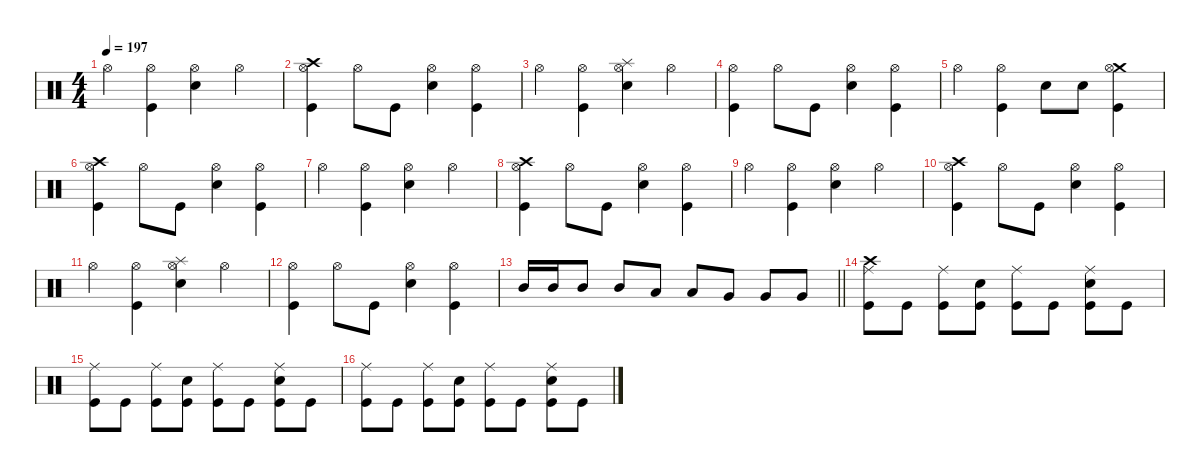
\defaultSystemsLayout 4
\hideDynamics
\bracketExtendMode nobrackets
\singleTrackTrackNamePolicy hidden
\multiTrackTrackNamePolicy hidden
\firstSystemTrackNameMode fullname
\firstSystemTrackNameOrientation horizontal
\otherSystemsTrackNameOrientation horizontal
\track ("Drums" "drm.") {defaultSystemsLayout 4 instrument percussion}
\staff {score}
\articulation defaults
\ts (4 4)
\tempo 197
\clef neutral
\ks c "Hi-Hat (open)".4{dy f beam Down}
("Hi-Hat (open)" "Kick (hit)").4{beam Down} ("Hi-Hat (open)" "Snare (hit) 2").4{beam Down} "Hi-Hat (open)".4{beam Down} |
("Crash high (hit)" "Hi-Hat (open)" "Kick (hit)").4{beam Down} "Hi-Hat (open)".8{beam Down} "Kick (hit)".8{beam Down} ("Hi-Hat (open)" "Snare (hit) 2").4{beam Down} ("Hi-Hat (open)" "Kick (hit)").4{beam Down} |
"Hi-Hat (open)".4{beam Down} ("Hi-Hat (open)" "Kick (hit)").4{beam Down} ("Splash (hit)" "Hi-Hat (open)" "Snare (hit) 2").4{beam Down} "Hi-Hat (open)".4{beam Down} |
("Hi-Hat (open)" "Kick (hit)").4{beam Down} "Hi-Hat (open)".8{beam Down} "Kick (hit)".8{beam Down} ("Hi-Hat (open)" "Snare (hit) 2").4{beam Down} ("Hi-Hat (open)" "Kick (hit)").4{beam Down} |
"Hi-Hat (open)".4{beam Down} ("Hi-Hat (open)" "Kick (hit)").4{beam Down} "Snare (hit) 2".8{beam Down} "Snare (hit) 2".8{beam Down} ("Crash medium (hit)" "Hi-Hat (open)" "Kick (hit)").4{beam Down} |
("Crash high (hit)" "Hi-Hat (open)" "Kick (hit)").4{beam Down} "Hi-Hat (open)".8{beam Down} "Kick (hit)".8{beam Down} ("Hi-Hat (open)" "Snare (hit) 2").4{beam Down} ("Hi-Hat (open)" "Kick (hit)").4{beam Down} |
"Hi-Hat (open)".4{beam Down} ("Hi-Hat (open)" "Kick (hit)").4{beam Down} ("Hi-Hat (open)" "Snare (hit) 2").4{beam Down} "Hi-Hat (open)".4{beam Down} |
("Crash high (hit)" "Hi-Hat (open)" "Kick (hit)").4{beam Down} "Hi-Hat (open)".8{beam Down} "Kick (hit)".8{beam Down} ("Hi-Hat (open)" "Snare (hit) 2").4{beam Down} ("Hi-Hat (open)" "Kick (hit)").4{beam Down} |
"Hi-Hat (open)".4{beam Down} ("Hi-Hat (open)" "Kick (hit)").4{beam Down} ("Hi-Hat (open)" "Snare (hit) 2").4{beam Down} "Hi-Hat (open)".4{beam Down} |
("Crash high (hit)" "Hi-Hat (open)" "Kick (hit)").4{beam Down} "Hi-Hat (open)".8{beam Down} "Kick (hit)".8{beam Down} ("Hi-Hat (open)" "Snare (hit) 2").4{beam Down} ("Hi-Hat (open)" "Kick (hit)").4{beam Down} |
"Hi-Hat (open)".4{beam Down} ("Hi-Hat (open)" "Kick (hit)").4{beam Down} ("Splash (hit)" "Hi-Hat (open)" "Snare (hit) 2").4{beam Down} "Hi-Hat (open)".4{beam Down} |
("Hi-Hat (open)" "Kick (hit)").4{beam Down} "Hi-Hat (open)".8{beam Down} "Kick (hit)".8{beam Down} ("Hi-Hat (open)" "Snare (hit) 2").4{beam Down} ("Hi-Hat (open)" "Kick (hit)").4{beam Down} |
\barLineRight lightlight "Mid Tom (hit)".16{beam Up} "Mid Tom (hit)".16{beam Up} "Mid Tom (hit)".8{beam Up} "Mid Tom (hit)".8{beam Up} "Low Tom (hit)".8{beam Up} "Low Tom (hit)".8{beam Up} "Very Low Tom (hit)".8{beam Up} "Very Low Tom (hit)".8{beam Up} "Very Low Tom (hit)".8{beam Up}
|
("Crash high (hit)" "Ride (middle)" "Kick (hit)").8{beam Down} "Kick (hit)".8{beam Down} ("Ride (middle)" "Kick (hit)").8{beam Down} ("Snare (hit) 2" "Kick (hit)").8{beam Down} ("Ride (middle)" "Kick (hit)").8{beam Down} "Kick (hit)".8{beam Down} ("Ride (middle)" "Snare (hit) 2" "Kick (hit)").8{beam Down} "Kick (hit)".8{beam Down} |
("Ride (middle)" "Kick (hit)").8{beam Down} "Kick (hit)".8{beam Down} ("Ride (middle)" "Kick (hit)").8{beam Down} ("Snare (hit) 2" "Kick (hit)").8{beam Down} ("Ride (middle)" "Kick (hit)").8{beam Down} "Kick (hit)".8{beam Down} ("Ride (middle)" "Snare (hit) 2" "Kick (hit)").8{beam Down} "Kick (hit)".8{beam Down} |
("Ride (middle)" "Kick (hit)").8{beam Down} "Kick (hit)".8{beam Down} ("Ride (middle)" "Kick (hit)").8{beam Down} ("Snare (hit) 2" "Kick (hit)").8{beam Down} ("Ride (middle)" "Kick (hit)").8{beam Down} "Kick (hit)".8{beam Down} ("Ride (middle)" "Snare (hit) 2" "Kick (hit)").8{beam Down} "Kick (hit)".8{beam Down}
